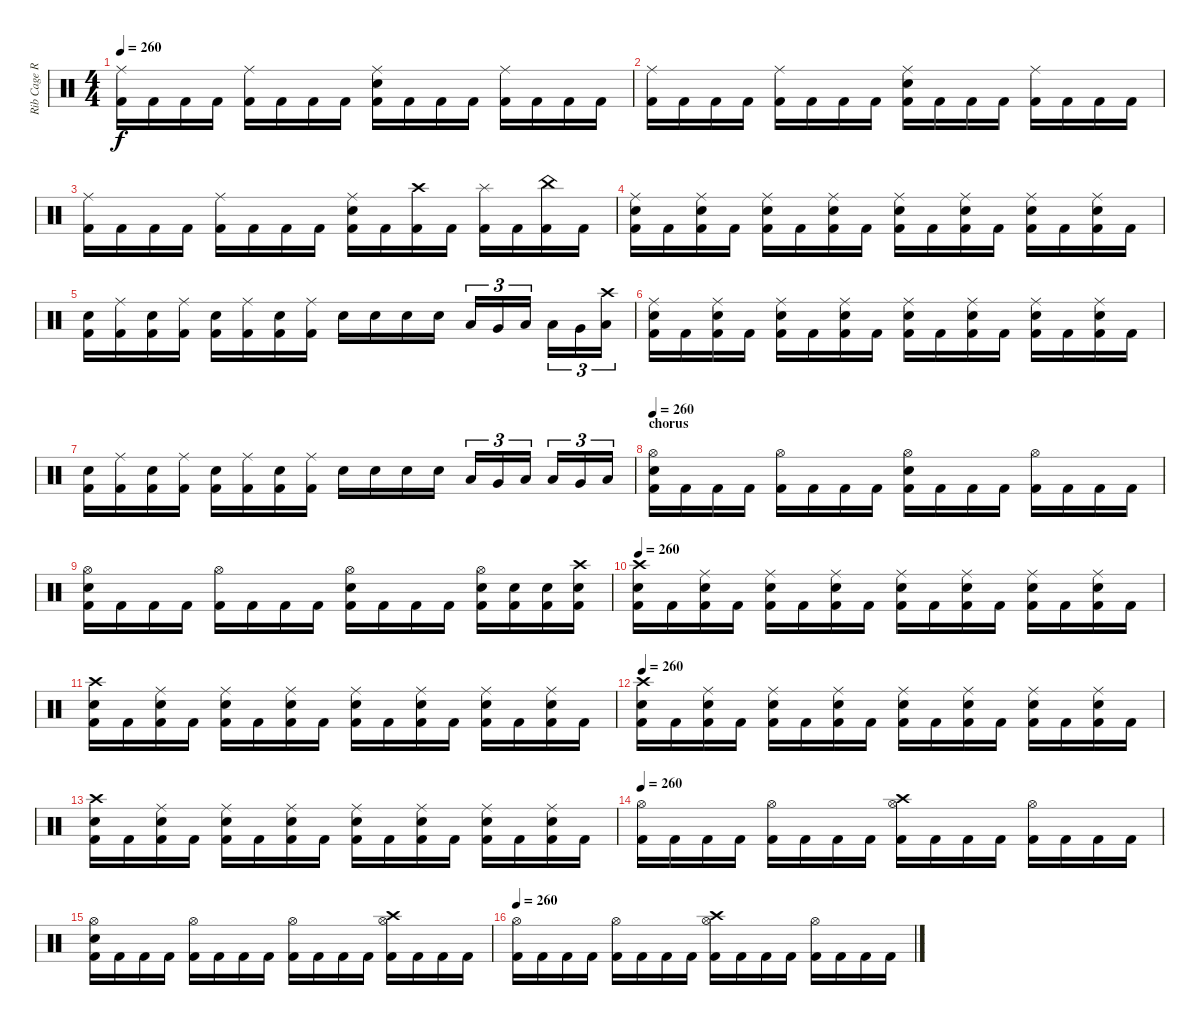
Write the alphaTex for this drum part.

\track ("Rib Cage Rupturing God Stomping Cremator" "Rib Cage R") {instrument percussion}
\staff {score}
\articulation defaults
\ts (4 4)
\tempo 260
\clef neutral
\ks c
("Ride (middle)" "Kick (hit) 2").16{dy f} "Kick (hit) 2".16 "Kick (hit) 2".16 "Kick (hit) 2".16 ("Ride (middle)" "Kick (hit) 2").16 "Kick (hit) 2".16 "Kick (hit) 2".16 "Kick (hit) 2".16 ("Ride (middle)" "Electric Snare (hit)" "Kick (hit) 2").16 "Kick (hit) 2".16 "Kick (hit) 2".16 "Kick (hit) 2".16 ("Ride (middle)" "Kick (hit) 2").16 "Kick (hit) 2".16 "Kick (hit) 2".16 "Kick (hit) 2".16 |
("Ride (middle)" "Kick (hit) 2").16 "Kick (hit) 2".16 "Kick (hit) 2".16 "Kick (hit) 2".16 ("Ride (middle)" "Kick (hit) 2").16 "Kick (hit) 2".16 "Kick (hit) 2".16 "Kick (hit) 2".16 ("Ride (middle)" "Electric Snare (hit)" "Kick (hit) 2").16 "Kick (hit) 2".16 "Kick (hit) 2".16 "Kick (hit) 2".16 ("Ride (middle)" "Kick (hit) 2").16 "Kick (hit) 2".16 "Kick (hit) 2".16 "Kick (hit) 2".16 |
("Ride (middle)" "Kick (hit) 2").16 "Kick (hit) 2".16 "Kick (hit) 2".16 "Kick (hit) 2".16 ("Ride (middle)" "Kick (hit) 2").16 "Kick (hit) 2".16 "Kick (hit) 2".16 "Kick (hit) 2".16 ("Ride (middle)" "Electric Snare (hit)" "Kick (hit) 2").16 "Kick (hit) 2".16 ("Crash high (hit)" "Kick (hit) 2").16 "Kick (hit) 2".16 ("Splash (hit)" "Kick (hit) 2").16 "Kick (hit) 2".16 ("China (hit)" "Kick (hit) 2").16 "Kick (hit) 2".16 |
("Ride (middle)" "Electric Snare (hit)" "Kick (hit) 2").16 "Kick (hit) 2".16 ("Ride (middle)" "Electric Snare (hit)" "Kick (hit) 2").16 "Kick (hit) 2".16 ("Ride (middle)" "Electric Snare (hit)" "Kick (hit) 2").16 "Kick (hit) 2".16 ("Ride (middle)" "Electric Snare (hit)" "Kick (hit) 2").16 "Kick (hit) 2".16 ("Ride (middle)" "Electric Snare (hit)" "Kick (hit) 2").16 "Kick (hit) 2".16 ("Ride (middle)" "Electric Snare (hit)" "Kick (hit) 2").16 "Kick (hit) 2".16 ("Ride (middle)" "Electric Snare (hit)" "Kick (hit) 2").16 "Kick (hit) 2".16 ("Ride (middle)" "Electric Snare (hit)" "Kick (hit) 2").16 "Kick (hit) 2".16 |
("Electric Snare (hit)" "Kick (hit) 2").16 ("Ride (middle)" "Kick (hit) 2").16 ("Electric Snare (hit)" "Kick (hit) 2").16 ("Ride (middle)" "Kick (hit) 2").16 ("Electric Snare (hit)" "Kick (hit) 2").16 ("Ride (middle)" "Kick (hit) 2").16 ("Electric Snare (hit)" "Kick (hit) 2").16 ("Ride (middle)" "Kick (hit) 2").16 "Electric Snare (hit)".16 "Electric Snare (hit)".16 "Electric Snare (hit)".16 "Electric Snare (hit)".16 "Low Tom (hit)".16{tu (3 2)} "Very Low Tom (hit)".16{tu (3 2)} "Low Floor Tom (hit)".16{tu (3 2)} "Low Tom (hit)".16{tu (3 2)} "Very Low Tom (hit)".16{tu (3 2)} ("Crash high (hit)" "Low Floor Tom (hit)").16{tu (3 2)} |
("Ride (middle)" "Electric Snare (hit)" "Kick (hit) 2").16 "Kick (hit) 2".16 ("Ride (middle)" "Electric Snare (hit)" "Kick (hit) 2").16 "Kick (hit) 2".16 ("Ride (middle)" "Electric Snare (hit)" "Kick (hit) 2").16 "Kick (hit) 2".16 ("Ride (middle)" "Electric Snare (hit)" "Kick (hit) 2").16 "Kick (hit) 2".16 ("Ride (middle)" "Electric Snare (hit)" "Kick (hit) 2").16 "Kick (hit) 2".16 ("Ride (middle)" "Electric Snare (hit)" "Kick (hit) 2").16 "Kick (hit) 2".16 ("Ride (middle)" "Electric Snare (hit)" "Kick (hit) 2").16 "Kick (hit) 2".16 ("Ride (middle)" "Electric Snare (hit)" "Kick (hit) 2").16 "Kick (hit) 2".16 |
("Electric Snare (hit)" "Kick (hit) 2").16 ("Ride (middle)" "Kick (hit) 2").16 ("Electric Snare (hit)" "Kick (hit) 2").16 ("Ride (middle)" "Kick (hit) 2").16 ("Electric Snare (hit)" "Kick (hit) 2").16 ("Ride (middle)" "Kick (hit) 2").16 ("Electric Snare (hit)" "Kick (hit) 2").16 ("Ride (middle)" "Kick (hit) 2").16 "Electric Snare (hit)".16 "Electric Snare (hit)".16 "Electric Snare (hit)".16 "Electric Snare (hit)".16 "Low Tom (hit)".16{tu (3 2)} "Very Low Tom (hit)".16{tu (3 2)} "Low Floor Tom (hit)".16{tu (3 2)} "Low Tom (hit)".16{tu (3 2)} "Very Low Tom (hit)".16{tu (3 2)} "Low Floor Tom (hit)".16{tu (3 2)} |
\section ("" "chorus")
\tempo 260
("Hi-Hat (open)" "Electric Snare (hit)" "Kick (hit) 2").16 "Kick (hit) 2".16 "Kick (hit) 2".16 "Kick (hit) 2".16 ("Hi-Hat (open)" "Kick (hit) 2").16 "Kick (hit) 2".16 "Kick (hit) 2".16 "Kick (hit) 2".16 ("Hi-Hat (open)" "Electric Snare (hit)" "Kick (hit) 2").16 "Kick (hit) 2".16 "Kick (hit) 2".16 "Kick (hit) 2".16 ("Hi-Hat (open)" "Kick (hit) 2").16 "Kick (hit) 2".16 "Kick (hit) 2".16 "Kick (hit) 2".16 |
("Hi-Hat (open)" "Electric Snare (hit)" "Kick (hit) 2").16 "Kick (hit) 2".16 "Kick (hit) 2".16 "Kick (hit) 2".16 ("Hi-Hat (open)" "Kick (hit) 2").16 "Kick (hit) 2".16 "Kick (hit) 2".16 "Kick (hit) 2".16 ("Hi-Hat (open)" "Electric Snare (hit)" "Kick (hit) 2").16 "Kick (hit) 2".16 "Kick (hit) 2".16 "Kick (hit) 2".16 ("Hi-Hat (open)" "Electric Snare (hit)" "Kick (hit) 2").16 ("Electric Snare (hit)" "Kick (hit) 2").16 ("Electric Snare (hit)" "Kick (hit) 2").16 ("Crash high (hit)" "Electric Snare (hit)" "Kick (hit) 2").16 |
\tempo 260
("Crash high (hit)" "Electric Snare (hit)" "Kick (hit) 2").16 "Kick (hit) 2".16 ("Ride (middle)" "Electric Snare (hit)" "Kick (hit) 2").16 "Kick (hit) 2".16 ("Ride (middle)" "Electric Snare (hit)" "Kick (hit) 2").16 "Kick (hit) 2".16 ("Ride (middle)" "Electric Snare (hit)" "Kick (hit) 2").16 "Kick (hit) 2".16 ("Ride (middle)" "Electric Snare (hit)" "Kick (hit) 2").16 "Kick (hit) 2".16 ("Ride (middle)" "Electric Snare (hit)" "Kick (hit) 2").16 "Kick (hit) 2".16 ("Ride (middle)" "Electric Snare (hit)" "Kick (hit) 2").16 "Kick (hit) 2".16 ("Ride (middle)" "Electric Snare (hit)" "Kick (hit) 2").16 "Kick (hit) 2".16 |
("Crash high (hit)" "Electric Snare (hit)" "Kick (hit) 2").16 "Kick (hit) 2".16 ("Ride (middle)" "Electric Snare (hit)" "Kick (hit) 2").16 "Kick (hit) 2".16 ("Ride (middle)" "Electric Snare (hit)" "Kick (hit) 2").16 "Kick (hit) 2".16 ("Ride (middle)" "Electric Snare (hit)" "Kick (hit) 2").16 "Kick (hit) 2".16 ("Ride (middle)" "Electric Snare (hit)" "Kick (hit) 2").16 "Kick (hit) 2".16 ("Ride (middle)" "Electric Snare (hit)" "Kick (hit) 2").16 "Kick (hit) 2".16 ("Ride (middle)" "Electric Snare (hit)" "Kick (hit) 2").16 "Kick (hit) 2".16 ("Ride (middle)" "Electric Snare (hit)" "Kick (hit) 2").16 "Kick (hit) 2".16 |
\tempo 260
("Crash high (hit)" "Electric Snare (hit)" "Kick (hit) 2").16 "Kick (hit) 2".16 ("Ride (middle)" "Electric Snare (hit)" "Kick (hit) 2").16 "Kick (hit) 2".16 ("Ride (middle)" "Electric Snare (hit)" "Kick (hit) 2").16 "Kick (hit) 2".16 ("Ride (middle)" "Electric Snare (hit)" "Kick (hit) 2").16 "Kick (hit) 2".16 ("Ride (middle)" "Electric Snare (hit)" "Kick (hit) 2").16 "Kick (hit) 2".16 ("Ride (middle)" "Electric Snare (hit)" "Kick (hit) 2").16 "Kick (hit) 2".16 ("Ride (middle)" "Electric Snare (hit)" "Kick (hit) 2").16 "Kick (hit) 2".16 ("Ride (middle)" "Electric Snare (hit)" "Kick (hit) 2").16 "Kick (hit) 2".16 |
("Crash high (hit)" "Electric Snare (hit)" "Kick (hit) 2").16 "Kick (hit) 2".16 ("Ride (middle)" "Electric Snare (hit)" "Kick (hit) 2").16 "Kick (hit) 2".16 ("Ride (middle)" "Electric Snare (hit)" "Kick (hit) 2").16 "Kick (hit) 2".16 ("Ride (middle)" "Electric Snare (hit)" "Kick (hit) 2").16 "Kick (hit) 2".16 ("Ride (middle)" "Electric Snare (hit)" "Kick (hit) 2").16 "Kick (hit) 2".16 ("Ride (middle)" "Electric Snare (hit)" "Kick (hit) 2").16 "Kick (hit) 2".16 ("Ride (middle)" "Electric Snare (hit)" "Kick (hit) 2").16 "Kick (hit) 2".16 ("Ride (middle)" "Electric Snare (hit)" "Kick (hit) 2").16 "Kick (hit) 2".16 |
\tempo 260
("Hi-Hat (open)" "Kick (hit) 2").16 "Kick (hit) 2".16 "Kick (hit) 2".16 "Kick (hit) 2".16 ("Hi-Hat (open)" "Kick (hit) 2").16 "Kick (hit) 2".16 "Kick (hit) 2".16 "Kick (hit) 2".16 ("Crash high (hit)" "Hi-Hat (open)" "Kick (hit) 2").16 "Kick (hit) 2".16 "Kick (hit) 2".16 "Kick (hit) 2".16 ("Hi-Hat (open)" "Kick (hit) 2").16 "Kick (hit) 2".16 "Kick (hit) 2".16 "Kick (hit) 2".16 |
("Hi-Hat (open)" "Electric Snare (hit)" "Kick (hit) 2").16 "Kick (hit) 2".16 "Kick (hit) 2".16 "Kick (hit) 2".16 ("Hi-Hat (open)" "Kick (hit) 2").16 "Kick (hit) 2".16 "Kick (hit) 2".16 "Kick (hit) 2".16 ("Hi-Hat (open)" "Kick (hit) 2").16 "Kick (hit) 2".16 "Kick (hit) 2".16 "Kick (hit) 2".16 ("Crash high (hit)" "Hi-Hat (open)" "Kick (hit) 2").16 "Kick (hit) 2".16 "Kick (hit) 2".16 "Kick (hit) 2".16 |
\tempo 260
("Hi-Hat (open)" "Kick (hit) 2").16 "Kick (hit) 2".16 "Kick (hit) 2".16 "Kick (hit) 2".16 ("Hi-Hat (open)" "Kick (hit) 2").16 "Kick (hit) 2".16 "Kick (hit) 2".16 "Kick (hit) 2".16 ("Crash high (hit)" "Hi-Hat (open)" "Kick (hit) 2").16 "Kick (hit) 2".16 "Kick (hit) 2".16 "Kick (hit) 2".16 ("Hi-Hat (open)" "Kick (hit) 2").16 "Kick (hit) 2".16 "Kick (hit) 2".16 "Kick (hit) 2".16
